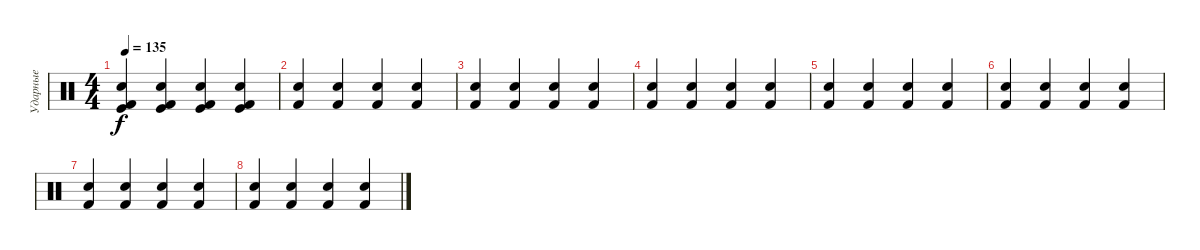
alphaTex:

\track ("Ударные" "Ударные") {instrument percussion}
\staff {score}
\articulation defaults
\ts (4 4)
\tempo 135
\clef neutral
\ks c
("Kick (hit)" "Kick (hit) 2" "Electric Snare (hit)").4{dy f} ("Kick (hit)" "Kick (hit) 2" "Electric Snare (hit)").4 ("Kick (hit)" "Kick (hit) 2" "Electric Snare (hit)").4 ("Kick (hit)" "Kick (hit) 2" "Electric Snare (hit)").4 |
("Kick (hit) 2" "Electric Snare (hit)").4 ("Kick (hit) 2" "Electric Snare (hit)").4 ("Kick (hit) 2" "Electric Snare (hit)").4 ("Kick (hit) 2" "Electric Snare (hit)").4 |
("Kick (hit) 2" "Electric Snare (hit)").4 ("Kick (hit) 2" "Electric Snare (hit)").4 ("Kick (hit) 2" "Electric Snare (hit)").4 ("Kick (hit) 2" "Electric Snare (hit)").4 |
("Kick (hit) 2" "Electric Snare (hit)").4 ("Kick (hit) 2" "Electric Snare (hit)").4 ("Kick (hit) 2" "Electric Snare (hit)").4 ("Kick (hit) 2" "Electric Snare (hit)").4 |
("Kick (hit) 2" "Electric Snare (hit)").4 ("Kick (hit) 2" "Electric Snare (hit)").4 ("Kick (hit) 2" "Electric Snare (hit)").4 ("Kick (hit) 2" "Electric Snare (hit)").4 |
("Kick (hit) 2" "Electric Snare (hit)").4 ("Kick (hit) 2" "Electric Snare (hit)").4 ("Kick (hit) 2" "Electric Snare (hit)").4 ("Kick (hit) 2" "Electric Snare (hit)").4 |
("Kick (hit) 2" "Electric Snare (hit)").4 ("Kick (hit) 2" "Electric Snare (hit)").4 ("Kick (hit) 2" "Electric Snare (hit)").4 ("Kick (hit) 2" "Electric Snare (hit)").4 |
("Kick (hit) 2" "Electric Snare (hit)").4 ("Kick (hit) 2" "Electric Snare (hit)").4 ("Kick (hit) 2" "Electric Snare (hit)").4 ("Kick (hit) 2" "Electric Snare (hit)").4
